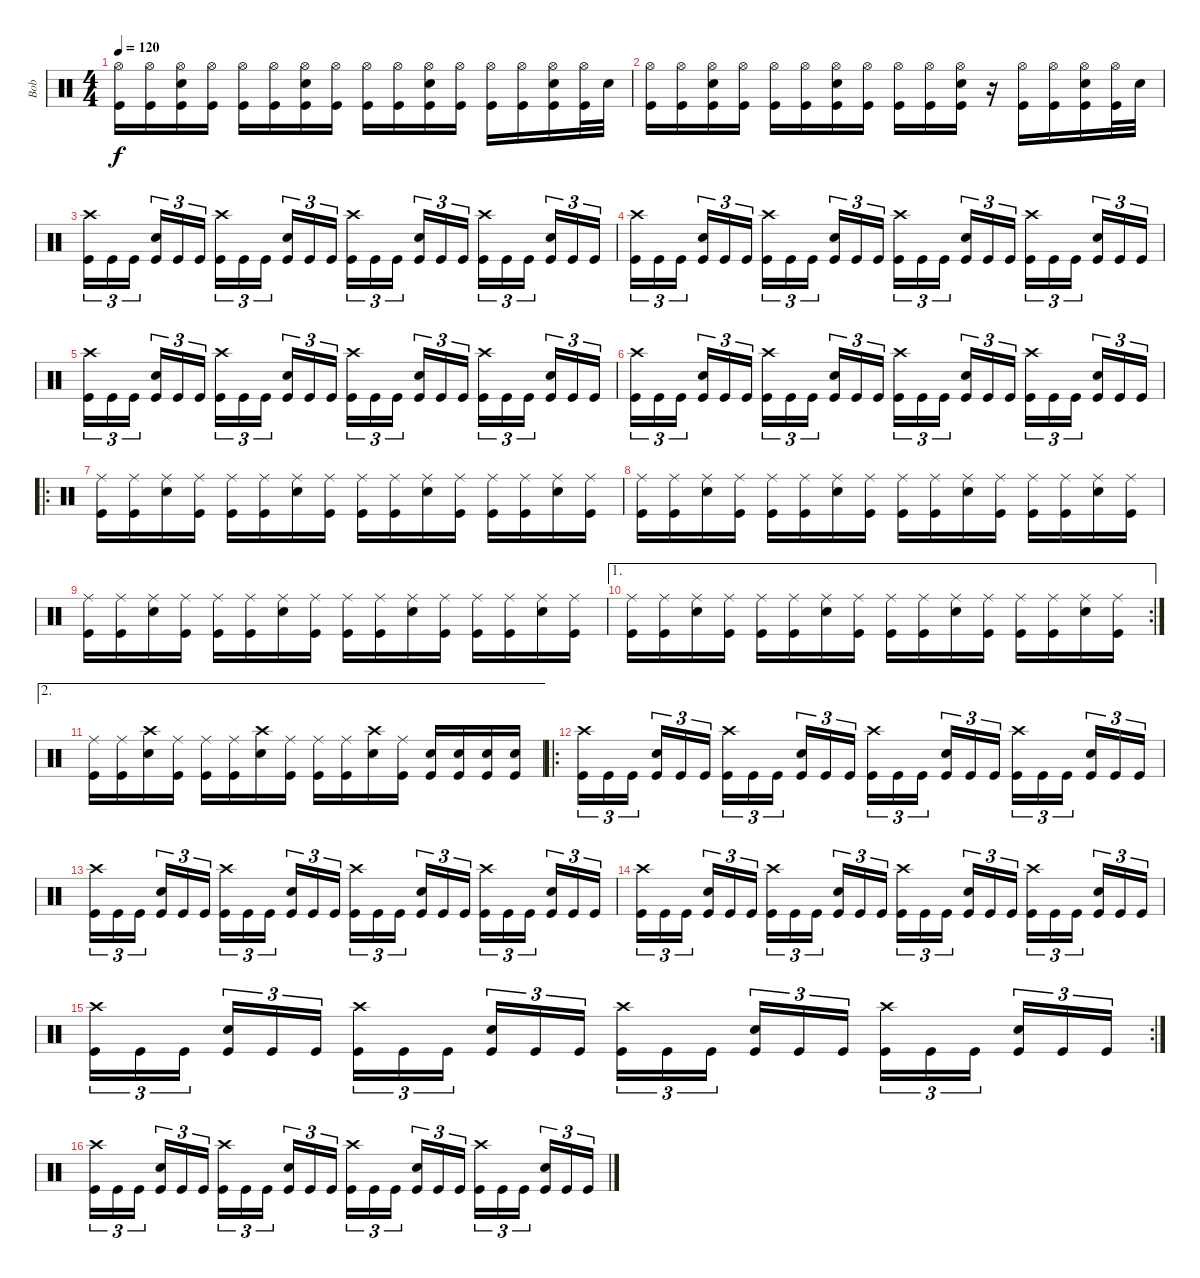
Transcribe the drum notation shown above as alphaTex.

\track ("Bob" "Bob") {instrument percussion}
\staff {score}
\articulation defaults
\ts (4 4)
\tempo 120
\clef neutral
\ks c
("Hi-Hat (open)" "Kick (hit)").16{dy f} ("Hi-Hat (open)" "Kick (hit)").16 ("Hi-Hat (open)" "Snare (hit) 2" "Kick (hit)").16 ("Hi-Hat (open)" "Kick (hit)").16 ("Hi-Hat (open)" "Kick (hit)").16 ("Hi-Hat (open)" "Kick (hit)").16 ("Hi-Hat (open)" "Snare (hit) 2" "Kick (hit)").16 ("Hi-Hat (open)" "Kick (hit)").16 ("Hi-Hat (open)" "Kick (hit)").16 ("Hi-Hat (open)" "Kick (hit)").16 ("Hi-Hat (open)" "Snare (hit) 2" "Kick (hit)").16 ("Hi-Hat (open)" "Kick (hit)").16 ("Hi-Hat (open)" "Kick (hit)").16 ("Hi-Hat (open)" "Kick (hit)").16 ("Hi-Hat (open)" "Snare (hit) 2" "Kick (hit)").16 ("Hi-Hat (open)" "Kick (hit)").32 "Snare (hit) 2".32 |
("Hi-Hat (open)" "Kick (hit)").16 ("Hi-Hat (open)" "Kick (hit)").16 ("Hi-Hat (open)" "Snare (hit) 2" "Kick (hit)").16 ("Hi-Hat (open)" "Kick (hit)").16 ("Hi-Hat (open)" "Kick (hit)").16 ("Hi-Hat (open)" "Kick (hit)").16 ("Hi-Hat (open)" "Snare (hit) 2" "Kick (hit)").16 ("Hi-Hat (open)" "Kick (hit)").16 ("Hi-Hat (open)" "Kick (hit)").16 ("Hi-Hat (open)" "Kick (hit)").16 ("Hi-Hat (open)" "Snare (hit) 2" "Kick (hit)").16 r.16 ("Hi-Hat (open)" "Kick (hit)").16 ("Hi-Hat (open)" "Kick (hit)").16 ("Hi-Hat (open)" "Snare (hit) 2" "Kick (hit)").16 ("Hi-Hat (open)" "Kick (hit)").32 "Snare (hit) 2".32 |
("Crash high (hit)" "Kick (hit)").16{tu (3 2)} "Kick (hit)".16{tu (3 2)} "Kick (hit)".16{tu (3 2)} ("Snare (hit) 2" "Kick (hit)").16{tu (3 2)} "Kick (hit)".16{tu (3 2)} "Kick (hit)".16{tu (3 2)} ("Crash high (hit)" "Kick (hit)").16{tu (3 2)} "Kick (hit)".16{tu (3 2)} "Kick (hit)".16{tu (3 2)} ("Snare (hit) 2" "Kick (hit)").16{tu (3 2)} "Kick (hit)".16{tu (3 2)} "Kick (hit)".16{tu (3 2)} ("Crash high (hit)" "Kick (hit)").16{tu (3 2)} "Kick (hit)".16{tu (3 2)} "Kick (hit)".16{tu (3 2)} ("Snare (hit) 2" "Kick (hit)").16{tu (3 2)} "Kick (hit)".16{tu (3 2)} "Kick (hit)".16{tu (3 2)} ("Crash high (hit)" "Kick (hit)").16{tu (3 2)} "Kick (hit)".16{tu (3 2)} "Kick (hit)".16{tu (3 2)} ("Snare (hit) 2" "Kick (hit)").16{tu (3 2)} "Kick (hit)".16{tu (3 2)} "Kick (hit)".16{tu (3 2)} |
("Crash high (hit)" "Kick (hit)").16{tu (3 2)} "Kick (hit)".16{tu (3 2)} "Kick (hit)".16{tu (3 2)} ("Snare (hit) 2" "Kick (hit)").16{tu (3 2)} "Kick (hit)".16{tu (3 2)} "Kick (hit)".16{tu (3 2)} ("Crash high (hit)" "Kick (hit)").16{tu (3 2)} "Kick (hit)".16{tu (3 2)} "Kick (hit)".16{tu (3 2)} ("Snare (hit) 2" "Kick (hit)").16{tu (3 2)} "Kick (hit)".16{tu (3 2)} "Kick (hit)".16{tu (3 2)} ("Crash high (hit)" "Kick (hit)").16{tu (3 2)} "Kick (hit)".16{tu (3 2)} "Kick (hit)".16{tu (3 2)} ("Snare (hit) 2" "Kick (hit)").16{tu (3 2)} "Kick (hit)".16{tu (3 2)} "Kick (hit)".16{tu (3 2)} ("Crash high (hit)" "Kick (hit)").16{tu (3 2)} "Kick (hit)".16{tu (3 2)} "Kick (hit)".16{tu (3 2)} ("Snare (hit) 2" "Kick (hit)").16{tu (3 2)} "Kick (hit)".16{tu (3 2)} "Kick (hit)".16{tu (3 2)} |
("Crash high (hit)" "Kick (hit)").16{tu (3 2)} "Kick (hit)".16{tu (3 2)} "Kick (hit)".16{tu (3 2)} ("Snare (hit) 2" "Kick (hit)").16{tu (3 2)} "Kick (hit)".16{tu (3 2)} "Kick (hit)".16{tu (3 2)} ("Crash high (hit)" "Kick (hit)").16{tu (3 2)} "Kick (hit)".16{tu (3 2)} "Kick (hit)".16{tu (3 2)} ("Snare (hit) 2" "Kick (hit)").16{tu (3 2)} "Kick (hit)".16{tu (3 2)} "Kick (hit)".16{tu (3 2)} ("Crash high (hit)" "Kick (hit)").16{tu (3 2)} "Kick (hit)".16{tu (3 2)} "Kick (hit)".16{tu (3 2)} ("Snare (hit) 2" "Kick (hit)").16{tu (3 2)} "Kick (hit)".16{tu (3 2)} "Kick (hit)".16{tu (3 2)} ("Crash high (hit)" "Kick (hit)").16{tu (3 2)} "Kick (hit)".16{tu (3 2)} "Kick (hit)".16{tu (3 2)} ("Snare (hit) 2" "Kick (hit)").16{tu (3 2)} "Kick (hit)".16{tu (3 2)} "Kick (hit)".16{tu (3 2)} |
("Crash high (hit)" "Kick (hit)").16{tu (3 2)} "Kick (hit)".16{tu (3 2)} "Kick (hit)".16{tu (3 2)} ("Snare (hit) 2" "Kick (hit)").16{tu (3 2)} "Kick (hit)".16{tu (3 2)} "Kick (hit)".16{tu (3 2)} ("Crash high (hit)" "Kick (hit)").16{tu (3 2)} "Kick (hit)".16{tu (3 2)} "Kick (hit)".16{tu (3 2)} ("Snare (hit) 2" "Kick (hit)").16{tu (3 2)} "Kick (hit)".16{tu (3 2)} "Kick (hit)".16{tu (3 2)} ("Crash high (hit)" "Kick (hit)").16{tu (3 2)} "Kick (hit)".16{tu (3 2)} "Kick (hit)".16{tu (3 2)} ("Snare (hit) 2" "Kick (hit)").16{tu (3 2)} "Kick (hit)".16{tu (3 2)} "Kick (hit)".16{tu (3 2)} ("Crash high (hit)" "Kick (hit)").16{tu (3 2)} "Kick (hit)".16{tu (3 2)} "Kick (hit)".16{tu (3 2)} ("Snare (hit) 2" "Kick (hit)").16{tu (3 2)} "Kick (hit)".16{tu (3 2)} "Kick (hit)".16{tu (3 2)} |
\ro
("Ride (middle)" "Kick (hit)").16 ("Ride (middle)" "Kick (hit)").16 ("Ride (middle)" "Snare (hit) 2").16 ("Ride (middle)" "Kick (hit)").16 ("Ride (middle)" "Kick (hit)").16 ("Ride (middle)" "Kick (hit)").16 ("Ride (middle)" "Snare (hit) 2").16 ("Ride (middle)" "Kick (hit)").16 ("Ride (middle)" "Kick (hit)").16 ("Ride (middle)" "Kick (hit)").16 ("Ride (middle)" "Snare (hit) 2").16 ("Ride (middle)" "Kick (hit)").16 ("Ride (middle)" "Kick (hit)").16 ("Ride (middle)" "Kick (hit)").16 ("Ride (middle)" "Snare (hit) 2").16 ("Ride (middle)" "Kick (hit)").16 |
("Ride (middle)" "Kick (hit)").16 ("Ride (middle)" "Kick (hit)").16 ("Ride (middle)" "Snare (hit) 2").16 ("Ride (middle)" "Kick (hit)").16 ("Ride (middle)" "Kick (hit)").16 ("Ride (middle)" "Kick (hit)").16 ("Ride (middle)" "Snare (hit) 2").16 ("Ride (middle)" "Kick (hit)").16 ("Ride (middle)" "Kick (hit)").16 ("Ride (middle)" "Kick (hit)").16 ("Ride (middle)" "Snare (hit) 2").16 ("Ride (middle)" "Kick (hit)").16 ("Ride (middle)" "Kick (hit)").16 ("Ride (middle)" "Kick (hit)").16 ("Ride (middle)" "Snare (hit) 2").16 ("Ride (middle)" "Kick (hit)").16 |
("Ride (middle)" "Kick (hit)").16 ("Ride (middle)" "Kick (hit)").16 ("Ride (middle)" "Snare (hit) 2").16 ("Ride (middle)" "Kick (hit)").16 ("Ride (middle)" "Kick (hit)").16 ("Ride (middle)" "Kick (hit)").16 ("Ride (middle)" "Snare (hit) 2").16 ("Ride (middle)" "Kick (hit)").16 ("Ride (middle)" "Kick (hit)").16 ("Ride (middle)" "Kick (hit)").16 ("Ride (middle)" "Snare (hit) 2").16 ("Ride (middle)" "Kick (hit)").16 ("Ride (middle)" "Kick (hit)").16 ("Ride (middle)" "Kick (hit)").16 ("Ride (middle)" "Snare (hit) 2").16 ("Ride (middle)" "Kick (hit)").16 |
\ae 1
\rc 2
("Ride (middle)" "Kick (hit)").16 ("Ride (middle)" "Kick (hit)").16 ("Ride (middle)" "Snare (hit) 2").16 ("Ride (middle)" "Kick (hit)").16 ("Ride (middle)" "Kick (hit)").16 ("Ride (middle)" "Kick (hit)").16 ("Ride (middle)" "Snare (hit) 2").16 ("Ride (middle)" "Kick (hit)").16 ("Ride (middle)" "Kick (hit)").16 ("Ride (middle)" "Kick (hit)").16 ("Ride (middle)" "Snare (hit) 2").16 ("Ride (middle)" "Kick (hit)").16 ("Ride (middle)" "Kick (hit)").16 ("Ride (middle)" "Kick (hit)").16 ("Ride (middle)" "Snare (hit) 2").16 ("Ride (middle)" "Kick (hit)").16 |
\ae 2
("Ride (middle)" "Kick (hit)").16 ("Ride (middle)" "Kick (hit)").16 ("Crash high (hit)" "Snare (hit) 2").16 ("Ride (middle)" "Kick (hit)").16 ("Ride (middle)" "Kick (hit)").16 ("Ride (middle)" "Kick (hit)").16 ("Crash high (hit)" "Snare (hit) 2").16 ("Ride (middle)" "Kick (hit)").16 ("Ride (middle)" "Kick (hit)").16 ("Ride (middle)" "Kick (hit)").16 ("Crash high (hit)" "Snare (hit) 2").16 ("Ride (middle)" "Kick (hit)").16 ("Snare (hit) 2" "Kick (hit)").16 ("Snare (hit) 2" "Kick (hit)").16 ("Snare (hit) 2" "Kick (hit)").16 ("Snare (hit) 2" "Kick (hit)").16 |
\ro
("Crash high (hit)" "Kick (hit)").16{tu (3 2)} "Kick (hit)".16{tu (3 2)} "Kick (hit)".16{tu (3 2)} ("Snare (hit) 2" "Kick (hit)").16{tu (3 2)} "Kick (hit)".16{tu (3 2)} "Kick (hit)".16{tu (3 2)} ("Crash high (hit)" "Kick (hit)").16{tu (3 2)} "Kick (hit)".16{tu (3 2)} "Kick (hit)".16{tu (3 2)} ("Snare (hit) 2" "Kick (hit)").16{tu (3 2)} "Kick (hit)".16{tu (3 2)} "Kick (hit)".16{tu (3 2)} ("Crash high (hit)" "Kick (hit)").16{tu (3 2)} "Kick (hit)".16{tu (3 2)} "Kick (hit)".16{tu (3 2)} ("Snare (hit) 2" "Kick (hit)").16{tu (3 2)} "Kick (hit)".16{tu (3 2)} "Kick (hit)".16{tu (3 2)} ("Crash high (hit)" "Kick (hit)").16{tu (3 2)} "Kick (hit)".16{tu (3 2)} "Kick (hit)".16{tu (3 2)} ("Snare (hit) 2" "Kick (hit)").16{tu (3 2)} "Kick (hit)".16{tu (3 2)} "Kick (hit)".16{tu (3 2)} |
("Crash high (hit)" "Kick (hit)").16{tu (3 2)} "Kick (hit)".16{tu (3 2)} "Kick (hit)".16{tu (3 2)} ("Snare (hit) 2" "Kick (hit)").16{tu (3 2)} "Kick (hit)".16{tu (3 2)} "Kick (hit)".16{tu (3 2)} ("Crash high (hit)" "Kick (hit)").16{tu (3 2)} "Kick (hit)".16{tu (3 2)} "Kick (hit)".16{tu (3 2)} ("Snare (hit) 2" "Kick (hit)").16{tu (3 2)} "Kick (hit)".16{tu (3 2)} "Kick (hit)".16{tu (3 2)} ("Crash high (hit)" "Kick (hit)").16{tu (3 2)} "Kick (hit)".16{tu (3 2)} "Kick (hit)".16{tu (3 2)} ("Snare (hit) 2" "Kick (hit)").16{tu (3 2)} "Kick (hit)".16{tu (3 2)} "Kick (hit)".16{tu (3 2)} ("Crash high (hit)" "Kick (hit)").16{tu (3 2)} "Kick (hit)".16{tu (3 2)} "Kick (hit)".16{tu (3 2)} ("Snare (hit) 2" "Kick (hit)").16{tu (3 2)} "Kick (hit)".16{tu (3 2)} "Kick (hit)".16{tu (3 2)} |
("Crash high (hit)" "Kick (hit)").16{tu (3 2)} "Kick (hit)".16{tu (3 2)} "Kick (hit)".16{tu (3 2)} ("Snare (hit) 2" "Kick (hit)").16{tu (3 2)} "Kick (hit)".16{tu (3 2)} "Kick (hit)".16{tu (3 2)} ("Crash high (hit)" "Kick (hit)").16{tu (3 2)} "Kick (hit)".16{tu (3 2)} "Kick (hit)".16{tu (3 2)} ("Snare (hit) 2" "Kick (hit)").16{tu (3 2)} "Kick (hit)".16{tu (3 2)} "Kick (hit)".16{tu (3 2)} ("Crash high (hit)" "Kick (hit)").16{tu (3 2)} "Kick (hit)".16{tu (3 2)} "Kick (hit)".16{tu (3 2)} ("Snare (hit) 2" "Kick (hit)").16{tu (3 2)} "Kick (hit)".16{tu (3 2)} "Kick (hit)".16{tu (3 2)} ("Crash high (hit)" "Kick (hit)").16{tu (3 2)} "Kick (hit)".16{tu (3 2)} "Kick (hit)".16{tu (3 2)} ("Snare (hit) 2" "Kick (hit)").16{tu (3 2)} "Kick (hit)".16{tu (3 2)} "Kick (hit)".16{tu (3 2)} |
\rc 2
("Crash high (hit)" "Kick (hit)").16{tu (3 2)} "Kick (hit)".16{tu (3 2)} "Kick (hit)".16{tu (3 2)} ("Snare (hit) 2" "Kick (hit)").16{tu (3 2)} "Kick (hit)".16{tu (3 2)} "Kick (hit)".16{tu (3 2)} ("Crash high (hit)" "Kick (hit)").16{tu (3 2)} "Kick (hit)".16{tu (3 2)} "Kick (hit)".16{tu (3 2)} ("Snare (hit) 2" "Kick (hit)").16{tu (3 2)} "Kick (hit)".16{tu (3 2)} "Kick (hit)".16{tu (3 2)} ("Crash high (hit)" "Kick (hit)").16{tu (3 2)} "Kick (hit)".16{tu (3 2)} "Kick (hit)".16{tu (3 2)} ("Snare (hit) 2" "Kick (hit)").16{tu (3 2)} "Kick (hit)".16{tu (3 2)} "Kick (hit)".16{tu (3 2)} ("Crash high (hit)" "Kick (hit)").16{tu (3 2)} "Kick (hit)".16{tu (3 2)} "Kick (hit)".16{tu (3 2)} ("Snare (hit) 2" "Kick (hit)").16{tu (3 2)} "Kick (hit)".16{tu (3 2)} "Kick (hit)".16{tu (3 2)} |
("Crash high (hit)" "Kick (hit)").16{tu (3 2)} "Kick (hit)".16{tu (3 2)} "Kick (hit)".16{tu (3 2)} ("Snare (hit) 2" "Kick (hit)").16{tu (3 2)} "Kick (hit)".16{tu (3 2)} "Kick (hit)".16{tu (3 2)} ("Crash high (hit)" "Kick (hit)").16{tu (3 2)} "Kick (hit)".16{tu (3 2)} "Kick (hit)".16{tu (3 2)} ("Snare (hit) 2" "Kick (hit)").16{tu (3 2)} "Kick (hit)".16{tu (3 2)} "Kick (hit)".16{tu (3 2)} ("Crash high (hit)" "Kick (hit)").16{tu (3 2)} "Kick (hit)".16{tu (3 2)} "Kick (hit)".16{tu (3 2)} ("Snare (hit) 2" "Kick (hit)").16{tu (3 2)} "Kick (hit)".16{tu (3 2)} "Kick (hit)".16{tu (3 2)} ("Crash high (hit)" "Kick (hit)").16{tu (3 2)} "Kick (hit)".16{tu (3 2)} "Kick (hit)".16{tu (3 2)} ("Snare (hit) 2" "Kick (hit)").16{tu (3 2)} "Kick (hit)".16{tu (3 2)} "Kick (hit)".16{tu (3 2)}
